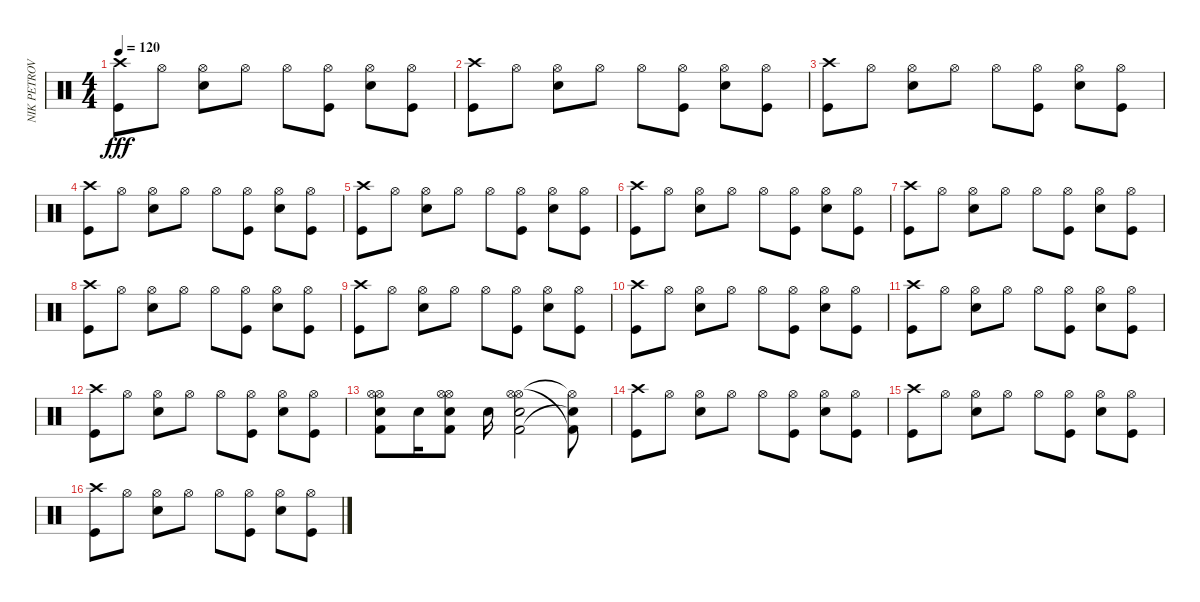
\track ("NIK PETROV" "NIK PETROV") {instrument percussion}
\staff {score}
\articulation defaults
\ts (4 4)
\tempo 120
\clef neutral
\ks c
("Crash high (hit)" "Kick (hit)").8{dy fff} "Hi-Hat (open)".8 ("Hi-Hat (open)" "Snare (hit) 2").8 "Hi-Hat (open)".8 "Hi-Hat (open)".8 ("Hi-Hat (open)" "Kick (hit)").8 ("Hi-Hat (open)" "Snare (hit) 2").8 ("Hi-Hat (open)" "Kick (hit)").8 |
("Crash high (hit)" "Kick (hit)").8 "Hi-Hat (open)".8 ("Hi-Hat (open)" "Snare (hit) 2").8 "Hi-Hat (open)".8 "Hi-Hat (open)".8 ("Hi-Hat (open)" "Kick (hit)").8 ("Hi-Hat (open)" "Snare (hit) 2").8 ("Hi-Hat (open)" "Kick (hit)").8 |
("Crash high (hit)" "Kick (hit)").8 "Hi-Hat (open)".8 ("Hi-Hat (open)" "Snare (hit) 2").8 "Hi-Hat (open)".8 "Hi-Hat (open)".8 ("Hi-Hat (open)" "Kick (hit)").8 ("Hi-Hat (open)" "Snare (hit) 2").8 ("Hi-Hat (open)" "Kick (hit)").8 |
("Crash high (hit)" "Kick (hit)").8 "Hi-Hat (open)".8 ("Hi-Hat (open)" "Snare (hit) 2").8 "Hi-Hat (open)".8 "Hi-Hat (open)".8 ("Hi-Hat (open)" "Kick (hit)").8 ("Hi-Hat (open)" "Snare (hit) 2").8 ("Hi-Hat (open)" "Kick (hit)").8 |
("Crash high (hit)" "Kick (hit)").8 "Hi-Hat (open)".8 ("Hi-Hat (open)" "Snare (hit) 2").8 "Hi-Hat (open)".8 "Hi-Hat (open)".8 ("Hi-Hat (open)" "Kick (hit)").8 ("Hi-Hat (open)" "Snare (hit) 2").8 ("Hi-Hat (open)" "Kick (hit)").8 |
("Crash high (hit)" "Kick (hit)").8 "Hi-Hat (open)".8 ("Hi-Hat (open)" "Snare (hit) 2").8 "Hi-Hat (open)".8 "Hi-Hat (open)".8 ("Hi-Hat (open)" "Kick (hit)").8 ("Hi-Hat (open)" "Snare (hit) 2").8 ("Hi-Hat (open)" "Kick (hit)").8 |
("Crash high (hit)" "Kick (hit)").8 "Hi-Hat (open)".8 ("Hi-Hat (open)" "Snare (hit) 2").8 "Hi-Hat (open)".8 "Hi-Hat (open)".8 ("Hi-Hat (open)" "Kick (hit)").8 ("Hi-Hat (open)" "Snare (hit) 2").8 ("Hi-Hat (open)" "Kick (hit)").8 |
("Crash high (hit)" "Kick (hit)").8 "Hi-Hat (open)".8 ("Hi-Hat (open)" "Snare (hit) 2").8 "Hi-Hat (open)".8 "Hi-Hat (open)".8 ("Hi-Hat (open)" "Kick (hit)").8 ("Hi-Hat (open)" "Snare (hit) 2").8 ("Hi-Hat (open)" "Kick (hit)").8 |
("Crash high (hit)" "Kick (hit)").8 "Hi-Hat (open)".8 ("Hi-Hat (open)" "Snare (hit) 2").8 "Hi-Hat (open)".8 "Hi-Hat (open)".8 ("Hi-Hat (open)" "Kick (hit)").8 ("Hi-Hat (open)" "Snare (hit) 2").8 ("Hi-Hat (open)" "Kick (hit)").8 |
("Crash high (hit)" "Kick (hit)").8 "Hi-Hat (open)".8 ("Hi-Hat (open)" "Snare (hit) 2").8 "Hi-Hat (open)".8 "Hi-Hat (open)".8 ("Hi-Hat (open)" "Kick (hit)").8 ("Hi-Hat (open)" "Snare (hit) 2").8 ("Hi-Hat (open)" "Kick (hit)").8 |
("Crash high (hit)" "Kick (hit)").8 "Hi-Hat (open)".8 ("Hi-Hat (open)" "Snare (hit) 2").8 "Hi-Hat (open)".8 "Hi-Hat (open)".8 ("Hi-Hat (open)" "Kick (hit)").8 ("Hi-Hat (open)" "Snare (hit) 2").8 ("Hi-Hat (open)" "Kick (hit)").8 |
("Crash high (hit)" "Kick (hit)").8 "Hi-Hat (open)".8 ("Hi-Hat (open)" "Snare (hit) 2").8 "Hi-Hat (open)".8 "Hi-Hat (open)".8 ("Hi-Hat (open)" "Kick (hit)").8 ("Hi-Hat (open)" "Snare (hit) 2").8 ("Hi-Hat (open)" "Kick (hit)").8 |
("Hi-Hat (open)" "Hi-Hat (open)" "Kick (hit) 2" "Snare (hit) 2").8 "Electric Snare (hit)".16 ("Hi-Hat (open)" "Hi-Hat (open)" "Kick (hit) 2" "Snare (hit) 2").8 "Electric Snare (hit)".16 ("Hi-Hat (open)" "Hi-Hat (open)" "Kick (hit) 2" "Snare (hit) 2").2 ("Hi-Hat (open)"{t} "Kick (hit) 2"{t} "Snare (hit) 2"{t}).8 |
("Crash high (hit)" "Kick (hit)").8 "Hi-Hat (open)".8 ("Hi-Hat (open)" "Snare (hit) 2").8 "Hi-Hat (open)".8 "Hi-Hat (open)".8 ("Hi-Hat (open)" "Kick (hit)").8 ("Hi-Hat (open)" "Snare (hit) 2").8 ("Hi-Hat (open)" "Kick (hit)").8 |
("Crash high (hit)" "Kick (hit)").8 "Hi-Hat (open)".8 ("Hi-Hat (open)" "Snare (hit) 2").8 "Hi-Hat (open)".8 "Hi-Hat (open)".8 ("Hi-Hat (open)" "Kick (hit)").8 ("Hi-Hat (open)" "Snare (hit) 2").8 ("Hi-Hat (open)" "Kick (hit)").8 |
("Crash high (hit)" "Kick (hit)").8 "Hi-Hat (open)".8 ("Hi-Hat (open)" "Snare (hit) 2").8 "Hi-Hat (open)".8 "Hi-Hat (open)".8 ("Hi-Hat (open)" "Kick (hit)").8 ("Hi-Hat (open)" "Snare (hit) 2").8 ("Hi-Hat (open)" "Kick (hit)").8
